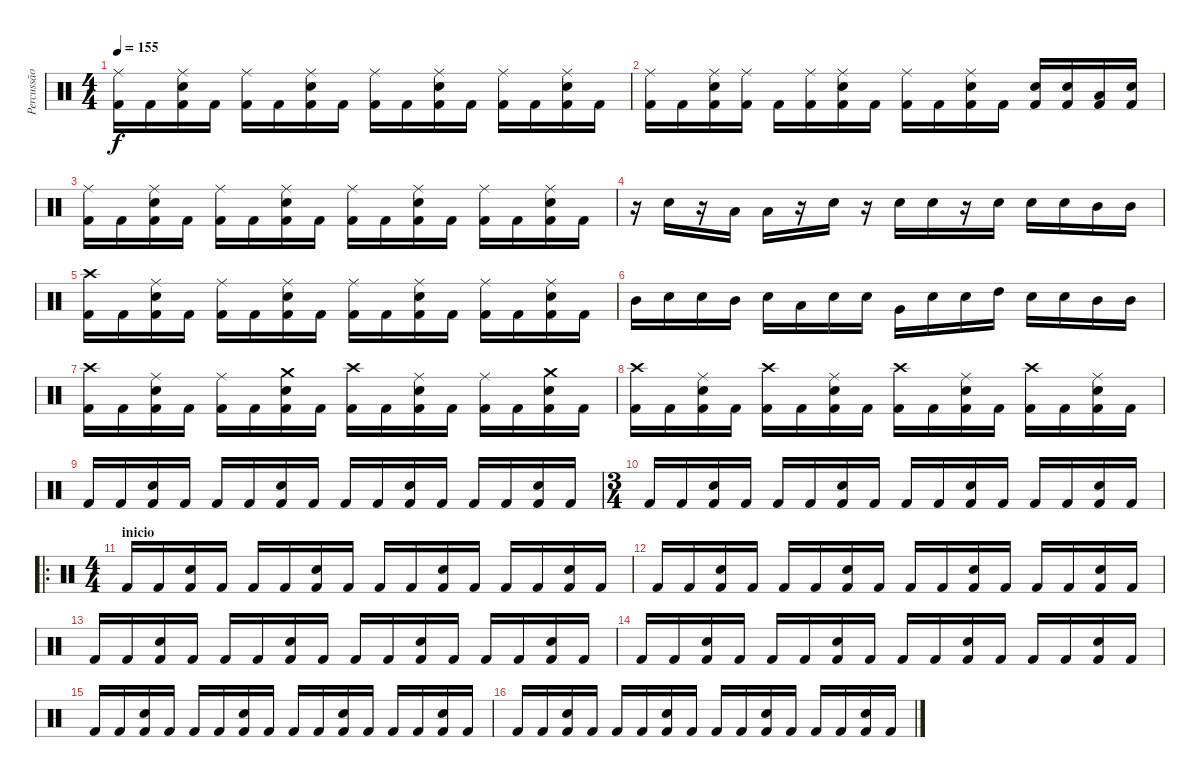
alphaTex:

\track ("Percussão" "Percussão") {instrument percussion}
\staff {score}
\articulation defaults
\ts (4 4)
\tempo 155
\clef neutral
\ks c
("Kick (hit) 2" "Ride (middle)").16{dy f} "Kick (hit) 2".16 ("Kick (hit) 2" "Snare (hit) 2" "Ride (middle)").16 "Kick (hit) 2".16 ("Kick (hit) 2" "Ride (middle)").16 "Kick (hit) 2".16 ("Kick (hit) 2" "Snare (hit) 2" "Ride (middle)").16 "Kick (hit) 2".16 ("Kick (hit) 2" "Ride (middle)").16 "Kick (hit) 2".16 ("Kick (hit) 2" "Snare (hit) 2" "Ride (middle)").16 "Kick (hit) 2".16 ("Kick (hit) 2" "Ride (middle)").16 "Kick (hit) 2".16 ("Kick (hit) 2" "Snare (hit) 2" "Ride (middle)").16 "Kick (hit) 2".16 |
("Kick (hit) 2" "Ride (middle)").16 "Kick (hit) 2".16 ("Kick (hit) 2" "Snare (hit) 2" "Ride (middle)").16 ("Kick (hit) 2" "Ride (middle)").16 "Kick (hit) 2".16 ("Kick (hit) 2" "Ride (middle)").16 ("Kick (hit) 2" "Snare (hit) 2" "Ride (middle)").16 "Kick (hit) 2".16 ("Kick (hit) 2" "Ride (middle)").16 "Kick (hit) 2".16 ("Kick (hit) 2" "Snare (hit) 2" "Ride (middle)").16 "Kick (hit) 2".16 ("Kick (hit) 2" "Snare (hit) 2").16 ("Kick (hit) 2" "Snare (hit) 2").16 ("Kick (hit) 2" "Low Tom (hit)").16 ("Kick (hit) 2" "Snare (hit)").16 |
("Kick (hit) 2" "Ride (middle)").16 "Kick (hit) 2".16 ("Kick (hit) 2" "Snare (hit) 2" "Ride (middle)").16 "Kick (hit) 2".16 ("Kick (hit) 2" "Ride (middle)").16 "Kick (hit) 2".16 ("Kick (hit) 2" "Snare (hit) 2" "Ride (middle)").16 "Kick (hit) 2".16 ("Kick (hit) 2" "Ride (middle)").16 "Kick (hit) 2".16 ("Kick (hit) 2" "Snare (hit) 2" "Ride (middle)").16 "Kick (hit) 2".16 ("Kick (hit) 2" "Ride (middle)").16 "Kick (hit) 2".16 ("Kick (hit) 2" "Snare (hit) 2" "Ride (middle)").16 "Kick (hit) 2".16 |
r.16 "Snare (hit) 2".16 r.16 "Low Tom (hit)".16 "Low Tom (hit)".16 r.16 "Snare (hit) 2".16 r.16 "Snare (hit) 2".16 "Snare (hit) 2".16 r.16 "Snare (hit) 2".16 "Snare (hit) 2".16 "Snare (hit) 2".16 "Mid Tom (hit)".16 "Mid Tom (hit)".16 |
("Kick (hit) 2" "Crash high (hit)").16 "Kick (hit) 2".16 ("Kick (hit) 2" "Snare (hit) 2" "Ride (middle)").16 "Kick (hit) 2".16 ("Kick (hit) 2" "Ride (middle)").16 "Kick (hit) 2".16 ("Kick (hit) 2" "Snare (hit) 2" "Ride (middle)").16 "Kick (hit) 2".16 ("Kick (hit) 2" "Ride (middle)").16 "Kick (hit) 2".16 ("Kick (hit) 2" "Snare (hit) 2" "Ride (middle)").16 "Kick (hit) 2".16 ("Kick (hit) 2" "Ride (middle)").16 "Kick (hit) 2".16 ("Kick (hit) 2" "Snare (hit) 2" "Ride (middle)").16 "Kick (hit) 2".16 |
"Mid Tom (hit)".16 "Snare (hit) 2".16 "Snare (hit) 2".16 "Mid Tom (hit)".16 "Snare (hit) 2".16 "Low Tom (hit)".16 "Snare (hit) 2".16 "Snare (hit) 2".16 "Very Low Tom (hit)".16 "Snare (hit) 2".16 "Snare (hit) 2".16 "High Tom (hit)".16 "Snare (hit) 2".16 "Snare (hit) 2".16 "Mid Tom (hit)".16 "Mid Tom (hit)".16 |
("Kick (hit) 2" "Crash high (hit)").16 "Kick (hit) 2".16 ("Kick (hit) 2" "Snare (hit) 2" "Ride (middle)").16 "Kick (hit) 2".16 ("Kick (hit) 2" "Ride (middle)").16 "Kick (hit) 2".16 ("Kick (hit) 2" "Snare (hit) 2" "Crash medium (hit)").16 "Kick (hit) 2".16 ("Kick (hit) 2" "Crash high (hit)").16 "Kick (hit) 2".16 ("Kick (hit) 2" "Snare (hit) 2" "Ride (middle)").16 "Kick (hit) 2".16 ("Kick (hit) 2" "Ride (middle)").16 "Kick (hit) 2".16 ("Kick (hit) 2" "Snare (hit) 2" "Crash medium (hit)").16 "Kick (hit) 2".16 |
("Kick (hit) 2" "Crash high (hit)").16 "Kick (hit) 2".16 ("Kick (hit) 2" "Snare (hit) 2" "Ride (middle)").16 "Kick (hit) 2".16 ("Kick (hit) 2" "Crash high (hit)").16 "Kick (hit) 2".16 ("Kick (hit) 2" "Snare (hit) 2" "Ride (middle)").16 "Kick (hit) 2".16 ("Kick (hit) 2" "Crash high (hit)").16 "Kick (hit) 2".16 ("Kick (hit) 2" "Snare (hit) 2" "Ride (middle)").16 "Kick (hit) 2".16 ("Kick (hit) 2" "Crash high (hit)").16 "Kick (hit) 2".16 ("Kick (hit) 2" "Snare (hit) 2" "Ride (middle)").16 "Kick (hit) 2".16 |
"Kick (hit) 2".16 "Kick (hit) 2".16 ("Kick (hit) 2" "Snare (hit) 2").16 "Kick (hit) 2".16 "Kick (hit) 2".16 "Kick (hit) 2".16 ("Kick (hit) 2" "Snare (hit) 2").16 "Kick (hit) 2".16 "Kick (hit) 2".16 "Kick (hit) 2".16 ("Kick (hit) 2" "Snare (hit) 2").16 "Kick (hit) 2".16 "Kick (hit) 2".16 "Kick (hit) 2".16 ("Kick (hit) 2" "Snare (hit) 2").16 "Kick (hit) 2".16 |
\ts (3 4)
"Kick (hit) 2".16 "Kick (hit) 2".16 ("Kick (hit) 2" "Snare (hit) 2").16 "Kick (hit) 2".16 "Kick (hit) 2".16 "Kick (hit) 2".16 ("Kick (hit) 2" "Snare (hit) 2").16 "Kick (hit) 2".16 "Kick (hit) 2".16 "Kick (hit) 2".16 ("Kick (hit) 2" "Snare (hit) 2").16 "Kick (hit) 2".16 "Kick (hit) 2".16 "Kick (hit) 2".16 ("Kick (hit) 2" "Snare (hit) 2").16 "Kick (hit) 2".16 |
\ro
\ts (4 4)
\section ("" "inicio")
"Kick (hit) 2".16 "Kick (hit) 2".16 ("Kick (hit) 2" "Snare (hit) 2").16 "Kick (hit) 2".16 "Kick (hit) 2".16 "Kick (hit) 2".16 ("Kick (hit) 2" "Snare (hit) 2").16 "Kick (hit) 2".16 "Kick (hit) 2".16 "Kick (hit) 2".16 ("Kick (hit) 2" "Snare (hit) 2").16 "Kick (hit) 2".16 "Kick (hit) 2".16 "Kick (hit) 2".16 ("Kick (hit) 2" "Snare (hit) 2").16 "Kick (hit) 2".16 |
"Kick (hit) 2".16 "Kick (hit) 2".16 ("Kick (hit) 2" "Snare (hit) 2").16 "Kick (hit) 2".16 "Kick (hit) 2".16 "Kick (hit) 2".16 ("Kick (hit) 2" "Snare (hit) 2").16 "Kick (hit) 2".16 "Kick (hit) 2".16 "Kick (hit) 2".16 ("Kick (hit) 2" "Snare (hit) 2").16 "Kick (hit) 2".16 "Kick (hit) 2".16 "Kick (hit) 2".16 ("Kick (hit) 2" "Snare (hit) 2").16 "Kick (hit) 2".16 |
"Kick (hit) 2".16 "Kick (hit) 2".16 ("Kick (hit) 2" "Snare (hit) 2").16 "Kick (hit) 2".16 "Kick (hit) 2".16 "Kick (hit) 2".16 ("Kick (hit) 2" "Snare (hit) 2").16 "Kick (hit) 2".16 "Kick (hit) 2".16 "Kick (hit) 2".16 ("Kick (hit) 2" "Snare (hit) 2").16 "Kick (hit) 2".16 "Kick (hit) 2".16 "Kick (hit) 2".16 ("Kick (hit) 2" "Snare (hit) 2").16 "Kick (hit) 2".16 |
"Kick (hit) 2".16 "Kick (hit) 2".16 ("Kick (hit) 2" "Snare (hit) 2").16 "Kick (hit) 2".16 "Kick (hit) 2".16 "Kick (hit) 2".16 ("Kick (hit) 2" "Snare (hit) 2").16 "Kick (hit) 2".16 "Kick (hit) 2".16 "Kick (hit) 2".16 ("Kick (hit) 2" "Snare (hit) 2").16 "Kick (hit) 2".16 "Kick (hit) 2".16 "Kick (hit) 2".16 ("Kick (hit) 2" "Snare (hit) 2").16 "Kick (hit) 2".16 |
"Kick (hit) 2".16 "Kick (hit) 2".16 ("Kick (hit) 2" "Snare (hit) 2").16 "Kick (hit) 2".16 "Kick (hit) 2".16 "Kick (hit) 2".16 ("Kick (hit) 2" "Snare (hit) 2").16 "Kick (hit) 2".16 "Kick (hit) 2".16 "Kick (hit) 2".16 ("Kick (hit) 2" "Snare (hit) 2").16 "Kick (hit) 2".16 "Kick (hit) 2".16 "Kick (hit) 2".16 ("Kick (hit) 2" "Snare (hit) 2").16 "Kick (hit) 2".16 |
"Kick (hit) 2".16 "Kick (hit) 2".16 ("Kick (hit) 2" "Snare (hit) 2").16 "Kick (hit) 2".16 "Kick (hit) 2".16 "Kick (hit) 2".16 ("Kick (hit) 2" "Snare (hit) 2").16 "Kick (hit) 2".16 "Kick (hit) 2".16 "Kick (hit) 2".16 ("Kick (hit) 2" "Snare (hit) 2").16 "Kick (hit) 2".16 "Kick (hit) 2".16 "Kick (hit) 2".16 ("Kick (hit) 2" "Snare (hit) 2").16 "Kick (hit) 2".16
